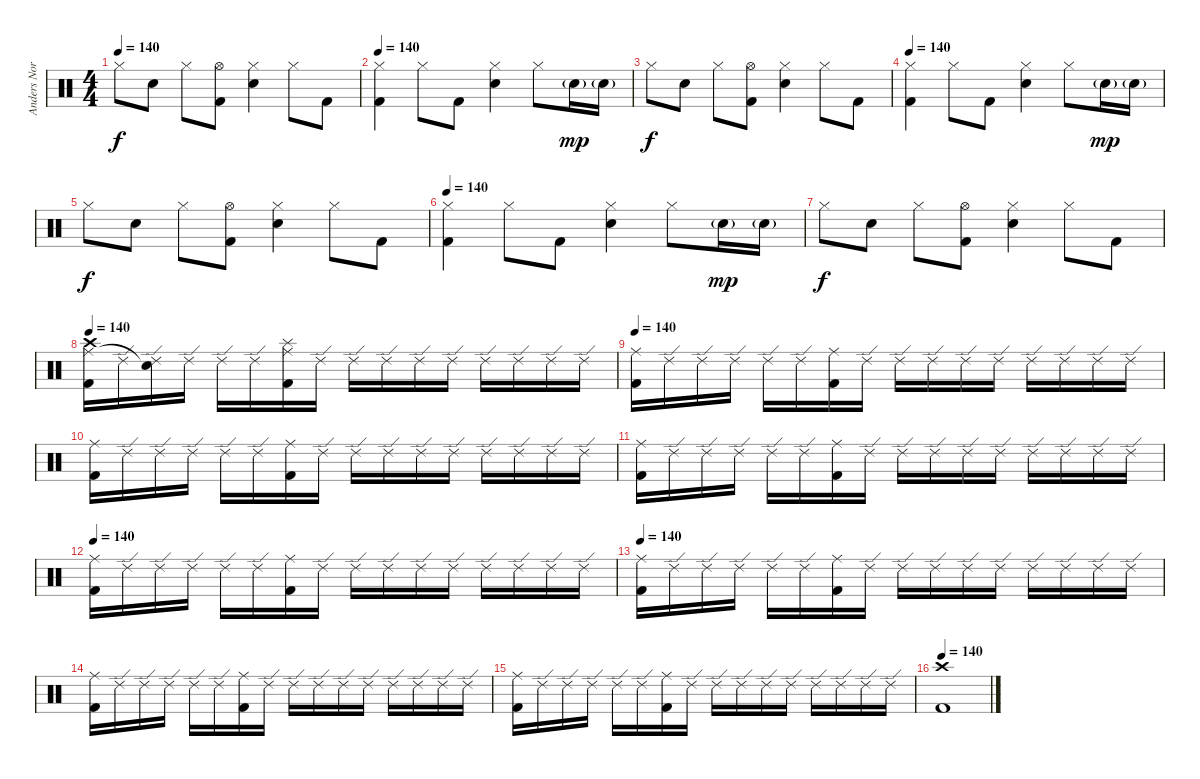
\track ("Anders Nordin" "Anders Nor") {instrument percussion}
\staff {score}
\articulation defaults
\ts (4 4)
\tempo 140
\clef neutral
\ks c "Hi-Hat (closed)".8{dy f} "Electric Snare (hit)".8 "Hi-Hat (closed)".8
("Kick (hit) 2" "Hi-Hat (open)").8 ("Electric Snare (hit)" "Hi-Hat (closed)").4 "Hi-Hat (closed)".8 "Kick (hit) 2".8 |
\tempo 140
("Kick (hit) 2" "Hi-Hat (closed)").4{volume 10} "Hi-Hat (closed)".8 "Kick (hit) 2".8 ("Electric Snare (hit)" "Hi-Hat (closed)").4 "Hi-Hat (closed)".8 "Electric Snare (hit)"{g}.16{dy mp} "Electric Snare (hit)"{g}.16 |
"Hi-Hat (closed)".8{dy f} "Electric Snare (hit)".8 "Hi-Hat (closed)".8 ("Kick (hit) 2" "Hi-Hat (open)").8 ("Electric Snare (hit)" "Hi-Hat (closed)").4 "Hi-Hat (closed)".8 "Kick (hit) 2".8 |
\tempo 140
("Kick (hit) 2" "Hi-Hat (closed)").4{volume 10} "Hi-Hat (closed)".8 "Kick (hit) 2".8 ("Electric Snare (hit)" "Hi-Hat (closed)").4 "Hi-Hat (closed)".8 "Electric Snare (hit)"{g}.16{dy mp} "Electric Snare (hit)"{g}.16 |
"Hi-Hat (closed)".8{dy f} "Electric Snare (hit)".8 "Hi-Hat (closed)".8 ("Kick (hit) 2" "Hi-Hat (open)").8 ("Electric Snare (hit)" "Hi-Hat (closed)").4 "Hi-Hat (closed)".8 "Kick (hit) 2".8 |
\tempo 140
("Kick (hit) 2" "Hi-Hat (closed)").4{volume 10} "Hi-Hat (closed)".8 "Kick (hit) 2".8 ("Electric Snare (hit)" "Hi-Hat (closed)").4 "Hi-Hat (closed)".8 "Electric Snare (hit)"{g}.16{dy mp} "Electric Snare (hit)"{g}.16 |
"Hi-Hat (closed)".8{dy f} "Electric Snare (hit)".8 "Hi-Hat (closed)".8 ("Kick (hit) 2" "Hi-Hat (open)").8 ("Electric Snare (hit)" "Hi-Hat (closed)").4 "Hi-Hat (closed)".8 "Kick (hit) 2".8 |
\tempo 140
("Kick (hit) 2" "Ride (middle)" "Crash high (hit)").16{volume 9} "Ride (edge) 2".16 ("Ride (edge) 2" "Snare (hit)"{t}).16 "Ride (edge) 2".16 "Ride (edge) 2".16 "Ride (edge) 2".16 ("Kick (hit) 2" "Ride (middle)" "Splash (hit)").16 "Ride (edge) 2".16 "Ride (edge) 2".16 "Ride (edge) 2".16 "Ride (edge) 2".16 "Ride (edge) 2".16 "Ride (edge) 2".16 "Ride (edge) 2".16 "Ride (edge) 2".16 "Ride (edge) 2".16 |
\tempo 140
("Kick (hit) 2" "Ride (middle)").16{volume 9} "Ride (edge) 2".16 "Ride (edge) 2".16 "Ride (edge) 2".16 "Ride (edge) 2".16 "Ride (edge) 2".16 ("Kick (hit) 2" "Ride (middle)").16 "Ride (edge) 2".16 "Ride (edge) 2".16 "Ride (edge) 2".16 "Ride (edge) 2".16 "Ride (edge) 2".16 "Ride (edge) 2".16 "Ride (edge) 2".16 "Ride (edge) 2".16 "Ride (edge) 2".16 |
("Kick (hit) 2" "Ride (middle)").16{volume 9} "Ride (edge) 2".16 "Ride (edge) 2".16 "Ride (edge) 2".16 "Ride (edge) 2".16 "Ride (edge) 2".16 ("Kick (hit) 2" "Ride (middle)").16 "Ride (edge) 2".16 "Ride (edge) 2".16 "Ride (edge) 2".16 "Ride (edge) 2".16 "Ride (edge) 2".16 "Ride (edge) 2".16 "Ride (edge) 2".16 "Ride (edge) 2".16 "Ride (edge) 2".16 |
("Kick (hit) 2" "Ride (middle)").16{volume 9} "Ride (edge) 2".16 "Ride (edge) 2".16 "Ride (edge) 2".16 "Ride (edge) 2".16 "Ride (edge) 2".16 ("Kick (hit) 2" "Ride (middle)").16 "Ride (edge) 2".16 "Ride (edge) 2".16 "Ride (edge) 2".16 "Ride (edge) 2".16 "Ride (edge) 2".16 "Ride (edge) 2".16 "Ride (edge) 2".16 "Ride (edge) 2".16 "Ride (edge) 2".16 |
\tempo 140
("Kick (hit) 2" "Ride (middle)").16{volume 9} "Ride (edge) 2".16 "Ride (edge) 2".16 "Ride (edge) 2".16 "Ride (edge) 2".16 "Ride (edge) 2".16 ("Kick (hit) 2" "Ride (middle)").16 "Ride (edge) 2".16 "Ride (edge) 2".16 "Ride (edge) 2".16 "Ride (edge) 2".16 "Ride (edge) 2".16 "Ride (edge) 2".16 "Ride (edge) 2".16 "Ride (edge) 2".16 "Ride (edge) 2".16 |
\tempo 140
("Kick (hit) 2" "Ride (middle)").16{volume 9} "Ride (edge) 2".16 "Ride (edge) 2".16 "Ride (edge) 2".16 "Ride (edge) 2".16 "Ride (edge) 2".16 ("Kick (hit) 2" "Ride (middle)").16 "Ride (edge) 2".16 "Ride (edge) 2".16 "Ride (edge) 2".16 "Ride (edge) 2".16 "Ride (edge) 2".16 "Ride (edge) 2".16 "Ride (edge) 2".16 "Ride (edge) 2".16 "Ride (edge) 2".16 |
("Kick (hit) 2" "Ride (middle)").16{volume 9} "Ride (edge) 2".16 "Ride (edge) 2".16 "Ride (edge) 2".16 "Ride (edge) 2".16 "Ride (edge) 2".16 ("Kick (hit) 2" "Ride (middle)").16 "Ride (edge) 2".16 "Ride (edge) 2".16 "Ride (edge) 2".16 "Ride (edge) 2".16 "Ride (edge) 2".16 "Ride (edge) 2".16 "Ride (edge) 2".16 "Ride (edge) 2".16 "Ride (edge) 2".16 |
("Kick (hit) 2" "Ride (middle)").16{volume 9} "Ride (edge) 2".16 "Ride (edge) 2".16 "Ride (edge) 2".16 "Ride (edge) 2".16 "Ride (edge) 2".16 ("Kick (hit) 2" "Ride (middle)").16 "Ride (edge) 2".16 "Ride (edge) 2".16 "Ride (edge) 2".16 "Ride (edge) 2".16 "Ride (edge) 2".16 "Ride (edge) 2".16 "Ride (edge) 2".16 "Ride (edge) 2".16 "Ride (edge) 2".16 |
\tempo 140
("Kick (hit) 2" "Crash high (hit)").1{volume 9}
